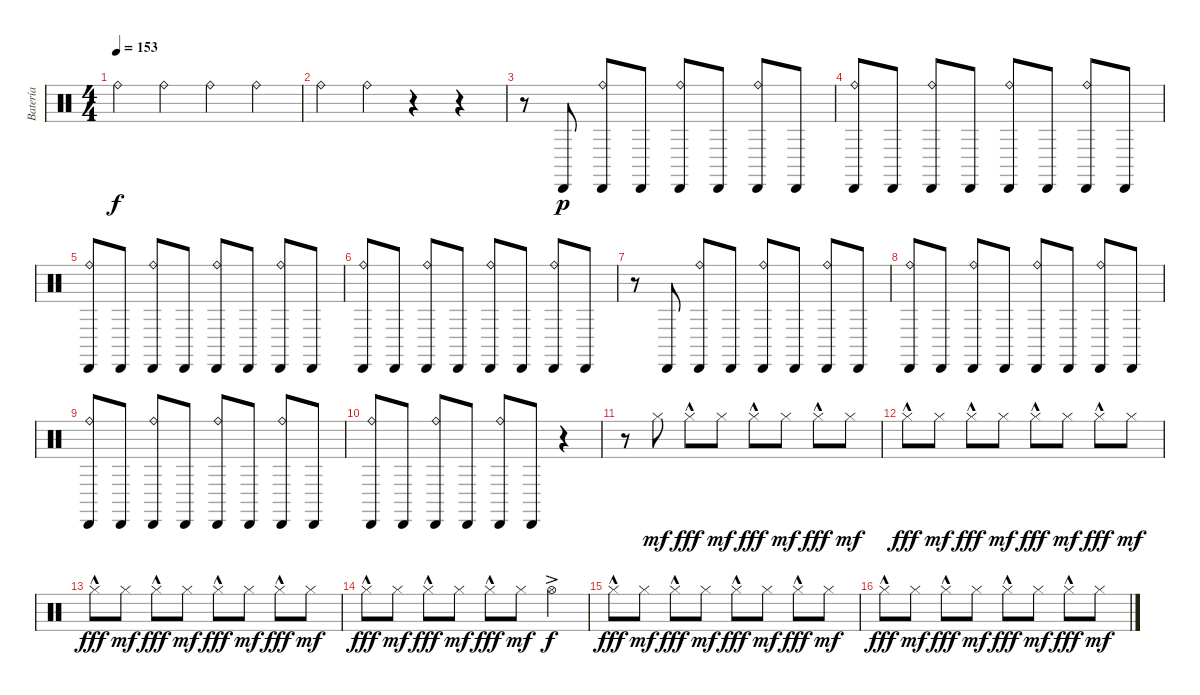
\track ("Batería" "Batería") {instrument percussion}
\staff {score}
\articulation defaults
\ts (4 4)
\tempo 153
\clef neutral
\ks c "Ride (bell)".4{dy f} "Ride (bell)".4 "Ride (bell)".4 "Ride (bell)".4
|
"Ride (bell)".4 "Ride (bell)".4 r.4 r.4 |
r.8 "Cabasa (hit)".8{dy p} ("Cabasa (hit)" "Ride (bell)").8 "Cabasa (hit)".8 ("Cabasa (hit)" "Ride (bell)").8 "Cabasa (hit)".8 ("Cabasa (hit)" "Ride (bell)").8 "Cabasa (hit)".8 |
("Cabasa (hit)" "Ride (bell)").8 "Cabasa (hit)".8 ("Cabasa (hit)" "Ride (bell)").8 "Cabasa (hit)".8 ("Cabasa (hit)" "Ride (bell)").8 "Cabasa (hit)".8 ("Cabasa (hit)" "Ride (bell)").8 "Cabasa (hit)".8 |
("Cabasa (hit)" "Ride (bell)").8 "Cabasa (hit)".8 ("Cabasa (hit)" "Ride (bell)").8 "Cabasa (hit)".8 ("Cabasa (hit)" "Ride (bell)").8 "Cabasa (hit)".8 ("Cabasa (hit)" "Ride (bell)").8 "Cabasa (hit)".8 |
("Cabasa (hit)" "Ride (bell)").8 "Cabasa (hit)".8 ("Cabasa (hit)" "Ride (bell)").8 "Cabasa (hit)".8 ("Cabasa (hit)" "Ride (bell)").8 "Cabasa (hit)".8 ("Cabasa (hit)" "Ride (bell)").8 "Cabasa (hit)".8 |
r.8 "Cabasa (hit)".8 ("Cabasa (hit)" "Ride (bell)").8 "Cabasa (hit)".8 ("Cabasa (hit)" "Ride (bell)").8 "Cabasa (hit)".8 ("Cabasa (hit)" "Ride (bell)").8 "Cabasa (hit)".8 |
("Cabasa (hit)" "Ride (bell)").8 "Cabasa (hit)".8 ("Cabasa (hit)" "Ride (bell)").8 "Cabasa (hit)".8 ("Cabasa (hit)" "Ride (bell)").8 "Cabasa (hit)".8 ("Cabasa (hit)" "Ride (bell)").8 "Cabasa (hit)".8 |
("Cabasa (hit)" "Ride (bell)").8 "Cabasa (hit)".8 ("Cabasa (hit)" "Ride (bell)").8 "Cabasa (hit)".8 ("Cabasa (hit)" "Ride (bell)").8 "Cabasa (hit)".8 ("Cabasa (hit)" "Ride (bell)").8 "Cabasa (hit)".8 |
("Cabasa (hit)" "Ride (bell)").8 "Cabasa (hit)".8 ("Cabasa (hit)" "Ride (bell)").8 "Cabasa (hit)".8 ("Cabasa (hit)" "Ride (bell)").8 "Cabasa (hit)".8 r.4 |
r.8 "Hi-Hat (closed)".8{dy mf} "Hi-Hat (closed)"{hac}.8{dy fff} "Hi-Hat (closed)".8{dy mf} "Hi-Hat (closed)"{hac}.8{dy fff} "Hi-Hat (closed)".8{dy mf} "Hi-Hat (closed)"{hac}.8{dy fff} "Hi-Hat (closed)".8{dy mf} |
"Hi-Hat (closed)"{hac}.8{dy fff} "Hi-Hat (closed)".8{dy mf} "Hi-Hat (closed)"{hac}.8{dy fff} "Hi-Hat (closed)".8{dy mf} "Hi-Hat (closed)"{hac}.8{dy fff} "Hi-Hat (closed)".8{dy mf} "Hi-Hat (closed)"{hac}.8{dy fff} "Hi-Hat (closed)".8{dy mf} |
"Hi-Hat (closed)"{hac}.8{dy fff} "Hi-Hat (closed)".8{dy mf} "Hi-Hat (closed)"{hac}.8{dy fff} "Hi-Hat (closed)".8{dy mf} "Hi-Hat (closed)"{hac}.8{dy fff} "Hi-Hat (closed)".8{dy mf} "Hi-Hat (closed)"{hac}.8{dy fff} "Hi-Hat (closed)".8{dy mf} |
"Hi-Hat (closed)"{hac}.8{dy fff} "Hi-Hat (closed)".8{dy mf} "Hi-Hat (closed)"{hac}.8{dy fff} "Hi-Hat (closed)".8{dy mf} "Hi-Hat (closed)"{hac}.8{dy fff} "Hi-Hat (closed)".8{dy mf} "Hi-Hat (open)"{ac}.4{dy f} |
"Hi-Hat (closed)"{hac}.8{dy fff} "Hi-Hat (closed)".8{dy mf} "Hi-Hat (closed)"{hac}.8{dy fff} "Hi-Hat (closed)".8{dy mf} "Hi-Hat (closed)"{hac}.8{dy fff} "Hi-Hat (closed)".8{dy mf} "Hi-Hat (closed)"{hac}.8{dy fff} "Hi-Hat (closed)".8{dy mf} |
"Hi-Hat (closed)"{hac}.8{dy fff} "Hi-Hat (closed)".8{dy mf} "Hi-Hat (closed)"{hac}.8{dy fff} "Hi-Hat (closed)".8{dy mf} "Hi-Hat (closed)"{hac}.8{dy fff} "Hi-Hat (closed)".8{dy mf} "Hi-Hat (closed)"{hac}.8{dy fff} "Hi-Hat (closed)".8{dy mf}
